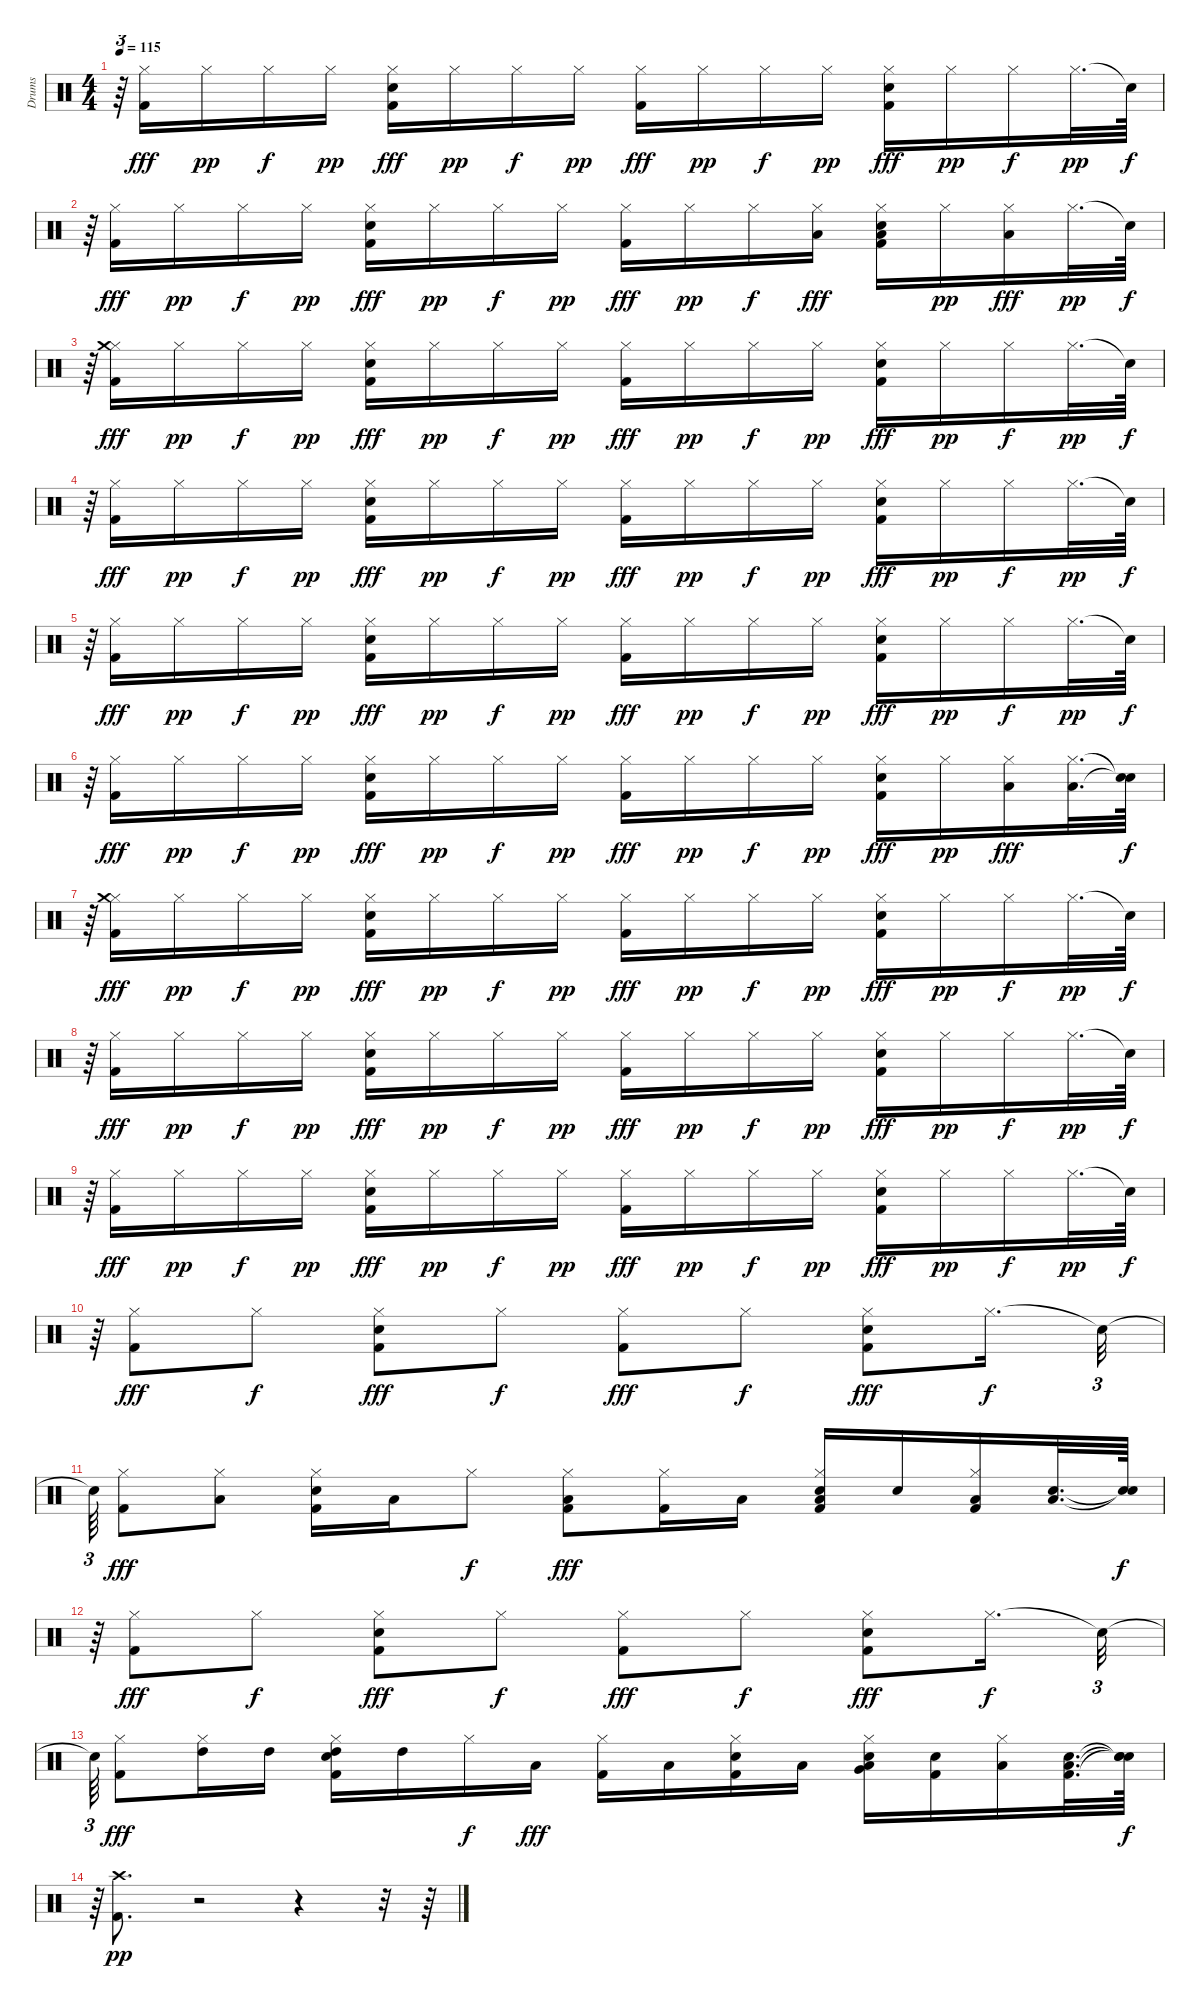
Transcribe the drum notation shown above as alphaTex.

\track ("Drums" "Drums") {instrument percussion}
\staff {score}
\articulation defaults
\ts (4 4)
\tempo 115
\clef neutral
\ks c
r.64{tu (3 2) dy f} ("Kick (hit) 2" "Hi-Hat (closed)").16{dy fff} "Hi-Hat (closed)".16{dy pp} "Hi-Hat (closed)".16{dy f} "Hi-Hat (closed)".16{dy pp} ("Kick (hit) 2" "Snare (hit) 2" "Hi-Hat (closed)").16{dy fff} "Hi-Hat (closed)".16{dy pp} "Hi-Hat (closed)".16{dy f} "Hi-Hat (closed)".16{dy pp} ("Kick (hit) 2" "Hi-Hat (closed)").16{dy fff} "Hi-Hat (closed)".16{dy pp} "Hi-Hat (closed)".16{dy f} "Hi-Hat (closed)".16{dy pp} ("Kick (hit) 2" "Snare (hit) 2" "Hi-Hat (closed)").16{dy fff} "Hi-Hat (closed)".16{dy pp} "Hi-Hat (closed)".16{dy f} "Hi-Hat (closed)".32{d dy pp} "Snare (hit)"{t}.64{dy f} |
r.64{tu (3 2)} ("Kick (hit) 2" "Hi-Hat (closed)").16{dy fff} "Hi-Hat (closed)".16{dy pp} "Hi-Hat (closed)".16{dy f} "Hi-Hat (closed)".16{dy pp} ("Kick (hit) 2" "Snare (hit) 2" "Hi-Hat (closed)").16{dy fff} "Hi-Hat (closed)".16{dy pp} "Hi-Hat (closed)".16{dy f} "Hi-Hat (closed)".16{dy pp} ("Kick (hit) 2" "Hi-Hat (closed)").16{dy fff} "Hi-Hat (closed)".16{dy pp} "Hi-Hat (closed)".16{dy f} ("Hi-Hat (closed)" "Low Tom (hit)").16{dy fff} ("Kick (hit) 2" "Snare (hit) 2" "Hi-Hat (closed)" "Low Tom (hit)").16 "Hi-Hat (closed)".16{dy pp} ("Low Floor Tom (hit)" "Hi-Hat (closed)").16{dy fff} "Hi-Hat (closed)".32{d dy pp} "Snare (hit)"{t}.64{dy f} |
r.64{tu (3 2)} ("Kick (hit) 2" "Hi-Hat (closed)" "Crash medium (hit)").16{dy fff} "Hi-Hat (closed)".16{dy pp} "Hi-Hat (closed)".16{dy f} "Hi-Hat (closed)".16{dy pp} ("Kick (hit) 2" "Snare (hit) 2" "Hi-Hat (closed)").16{dy fff} "Hi-Hat (closed)".16{dy pp} "Hi-Hat (closed)".16{dy f} "Hi-Hat (closed)".16{dy pp} ("Kick (hit) 2" "Hi-Hat (closed)").16{dy fff} "Hi-Hat (closed)".16{dy pp} "Hi-Hat (closed)".16{dy f} "Hi-Hat (closed)".16{dy pp} ("Kick (hit) 2" "Snare (hit) 2" "Hi-Hat (closed)").16{dy fff} "Hi-Hat (closed)".16{dy pp} "Hi-Hat (closed)".16{dy f} "Hi-Hat (closed)".32{d dy pp} "Snare (hit)"{t}.64{dy f} |
r.64{tu (3 2)} ("Kick (hit) 2" "Hi-Hat (closed)").16{dy fff} "Hi-Hat (closed)".16{dy pp} "Hi-Hat (closed)".16{dy f} "Hi-Hat (closed)".16{dy pp} ("Kick (hit) 2" "Snare (hit) 2" "Hi-Hat (closed)").16{dy fff} "Hi-Hat (closed)".16{dy pp} "Hi-Hat (closed)".16{dy f} "Hi-Hat (closed)".16{dy pp} ("Kick (hit) 2" "Hi-Hat (closed)").16{dy fff} "Hi-Hat (closed)".16{dy pp} "Hi-Hat (closed)".16{dy f} "Hi-Hat (closed)".16{dy pp} ("Kick (hit) 2" "Snare (hit) 2" "Hi-Hat (closed)").16{dy fff} "Hi-Hat (closed)".16{dy pp} "Hi-Hat (closed)".16{dy f} "Hi-Hat (closed)".32{d dy pp} "Snare (hit)"{t}.64{dy f} |
r.64{tu (3 2)} ("Kick (hit) 2" "Hi-Hat (closed)").16{dy fff} "Hi-Hat (closed)".16{dy pp} "Hi-Hat (closed)".16{dy f} "Hi-Hat (closed)".16{dy pp} ("Kick (hit) 2" "Snare (hit) 2" "Hi-Hat (closed)").16{dy fff} "Hi-Hat (closed)".16{dy pp} "Hi-Hat (closed)".16{dy f} "Hi-Hat (closed)".16{dy pp} ("Kick (hit) 2" "Hi-Hat (closed)").16{dy fff} "Hi-Hat (closed)".16{dy pp} "Hi-Hat (closed)".16{dy f} "Hi-Hat (closed)".16{dy pp} ("Kick (hit) 2" "Snare (hit) 2" "Hi-Hat (closed)").16{dy fff} "Hi-Hat (closed)".16{dy pp} "Hi-Hat (closed)".16{dy f} "Hi-Hat (closed)".32{d dy pp} "Snare (hit)"{t}.64{dy f} |
r.64{tu (3 2)} ("Kick (hit) 2" "Hi-Hat (closed)").16{dy fff} "Hi-Hat (closed)".16{dy pp} "Hi-Hat (closed)".16{dy f} "Hi-Hat (closed)".16{dy pp} ("Kick (hit) 2" "Snare (hit) 2" "Hi-Hat (closed)").16{dy fff} "Hi-Hat (closed)".16{dy pp} "Hi-Hat (closed)".16{dy f} "Hi-Hat (closed)".16{dy pp} ("Kick (hit) 2" "Hi-Hat (closed)").16{dy fff} "Hi-Hat (closed)".16{dy pp} "Hi-Hat (closed)".16{dy f} "Hi-Hat (closed)".16{dy pp} ("Kick (hit) 2" "Snare (hit) 2" "Hi-Hat (closed)").16{dy fff} "Hi-Hat (closed)".16{dy pp} ("Hi-Hat (closed)" "Low Tom (hit)").16{dy fff} ("Hi-Hat (closed)" "Low Tom (hit)").32{d} ("Snare (hit)"{t} "Snare (hit)"{t}).64{dy f} |
r.64{tu (3 2)} ("Kick (hit) 2" "Hi-Hat (closed)" "Crash medium (hit)").16{dy fff} "Hi-Hat (closed)".16{dy pp} "Hi-Hat (closed)".16{dy f} "Hi-Hat (closed)".16{dy pp} ("Kick (hit) 2" "Snare (hit) 2" "Hi-Hat (closed)").16{dy fff} "Hi-Hat (closed)".16{dy pp} "Hi-Hat (closed)".16{dy f} "Hi-Hat (closed)".16{dy pp} ("Kick (hit) 2" "Hi-Hat (closed)").16{dy fff} "Hi-Hat (closed)".16{dy pp} "Hi-Hat (closed)".16{dy f} "Hi-Hat (closed)".16{dy pp} ("Kick (hit) 2" "Snare (hit) 2" "Hi-Hat (closed)").16{dy fff} "Hi-Hat (closed)".16{dy pp} "Hi-Hat (closed)".16{dy f} "Hi-Hat (closed)".32{d dy pp} "Snare (hit)"{t}.64{dy f} |
r.64{tu (3 2)} ("Kick (hit) 2" "Hi-Hat (closed)").16{dy fff} "Hi-Hat (closed)".16{dy pp} "Hi-Hat (closed)".16{dy f} "Hi-Hat (closed)".16{dy pp} ("Kick (hit) 2" "Snare (hit) 2" "Hi-Hat (closed)").16{dy fff} "Hi-Hat (closed)".16{dy pp} "Hi-Hat (closed)".16{dy f} "Hi-Hat (closed)".16{dy pp} ("Kick (hit) 2" "Hi-Hat (closed)").16{dy fff} "Hi-Hat (closed)".16{dy pp} "Hi-Hat (closed)".16{dy f} "Hi-Hat (closed)".16{dy pp} ("Kick (hit) 2" "Snare (hit) 2" "Hi-Hat (closed)").16{dy fff} "Hi-Hat (closed)".16{dy pp} "Hi-Hat (closed)".16{dy f} "Hi-Hat (closed)".32{d dy pp} "Snare (hit)"{t}.64{dy f} |
r.64{tu (3 2)} ("Kick (hit) 2" "Hi-Hat (closed)").16{dy fff} "Hi-Hat (closed)".16{dy pp} "Hi-Hat (closed)".16{dy f} "Hi-Hat (closed)".16{dy pp} ("Kick (hit) 2" "Snare (hit) 2" "Hi-Hat (closed)").16{dy fff} "Hi-Hat (closed)".16{dy pp} "Hi-Hat (closed)".16{dy f} "Hi-Hat (closed)".16{dy pp} ("Kick (hit) 2" "Hi-Hat (closed)").16{dy fff} "Hi-Hat (closed)".16{dy pp} "Hi-Hat (closed)".16{dy f} "Hi-Hat (closed)".16{dy pp} ("Kick (hit) 2" "Snare (hit) 2" "Hi-Hat (closed)").16{dy fff} "Hi-Hat (closed)".16{dy pp} "Hi-Hat (closed)".16{dy f} "Hi-Hat (closed)".32{d dy pp} "Snare (hit)"{t}.64{dy f} |
r.64{tu (3 2)} ("Kick (hit) 2" "Hi-Hat (closed)").8{dy fff} "Hi-Hat (closed)".8{dy f} ("Kick (hit) 2" "Snare (hit) 2" "Hi-Hat (closed)").8{dy fff} "Hi-Hat (closed)".8{dy f} ("Kick (hit) 2" "Hi-Hat (closed)").8{dy fff} "Hi-Hat (closed)".8{dy f} ("Kick (hit) 2" "Snare (hit) 2" "Hi-Hat (closed)").8{dy fff} "Hi-Hat (closed)".16{d dy f} "Snare (hit)"{t}.32{tu (3 2)} |
"Snare (hit)"{t}.64{tu (3 2)} ("Kick (hit) 2" "Hi-Hat (closed)").8{dy fff} ("Hi-Hat (closed)" "Low Tom (hit)").8 ("Kick (hit) 2" "Snare (hit) 2" "Hi-Hat (closed)").16 "Low Tom (hit)".16 "Hi-Hat (closed)".8{dy f} ("Kick (hit) 2" "Hi-Hat (closed)" "Low Tom (hit)").8{dy fff} ("Kick (hit) 2" "Hi-Hat (closed)").16 "Low Floor Tom (hit)".16 ("Kick (hit) 2" "Snare (hit) 2" "Low Floor Tom (hit)" "Hi-Hat (closed)").16 "Snare (hit) 2".16 ("Kick (hit) 2" "Low Floor Tom (hit)" "Hi-Hat (closed)").16 ("Snare (hit) 2" "Low Floor Tom (hit)").32{d} ("Snare (hit)"{t} "Snare (hit)"{t}).64{dy f} |
r.64{tu (3 2)} ("Kick (hit) 2" "Hi-Hat (closed)").8{dy fff} "Hi-Hat (closed)".8{dy f} ("Kick (hit) 2" "Snare (hit) 2" "Hi-Hat (closed)").8{dy fff} "Hi-Hat (closed)".8{dy f} ("Kick (hit) 2" "Hi-Hat (closed)").8{dy fff} "Hi-Hat (closed)".8{dy f} ("Kick (hit) 2" "Snare (hit) 2" "Hi-Hat (closed)").8{dy fff} "Hi-Hat (closed)".16{d dy f} "Snare (hit)"{t}.32{tu (3 2)} |
"Snare (hit)"{t}.64{tu (3 2)} ("Kick (hit) 2" "Hi-Hat (closed)").8{dy fff} ("Hi-Hat (closed)" "High Tom (hit)").16 "High Tom (hit)".16 ("Kick (hit) 2" "Snare (hit) 2" "Hi-Hat (closed)" "High Tom (hit)").16 "High Tom (hit)".16 "Hi-Hat (closed)".16{dy f} "Low Tom (hit)".16{dy fff} ("Kick (hit) 2" "Hi-Hat (closed)").16 "Low Tom (hit)".16 ("Kick (hit) 2" "Snare (hit) 2" "Hi-Hat (closed)").16 "Low Tom (hit)".16 ("Snare (hit) 2" "Low Floor Tom (hit)" "Hi-Hat (closed)" "Very Low Tom (hit)").16 ("Kick (hit) 2" "Snare (hit) 2").16 ("Low Floor Tom (hit)" "Hi-Hat (closed)").16 ("Kick (hit) 2" "Snare (hit) 2" "Low Floor Tom (hit)").32{d} ("Snare (hit)"{t} "Snare (hit)"{t} "Snare (hit)"{t}).64{dy f} |
r.64{tu (3 2)} ("Kick (hit) 2" "Crash high (hit)").8{d dy pp} r.2 r.4 r.32 r.64
